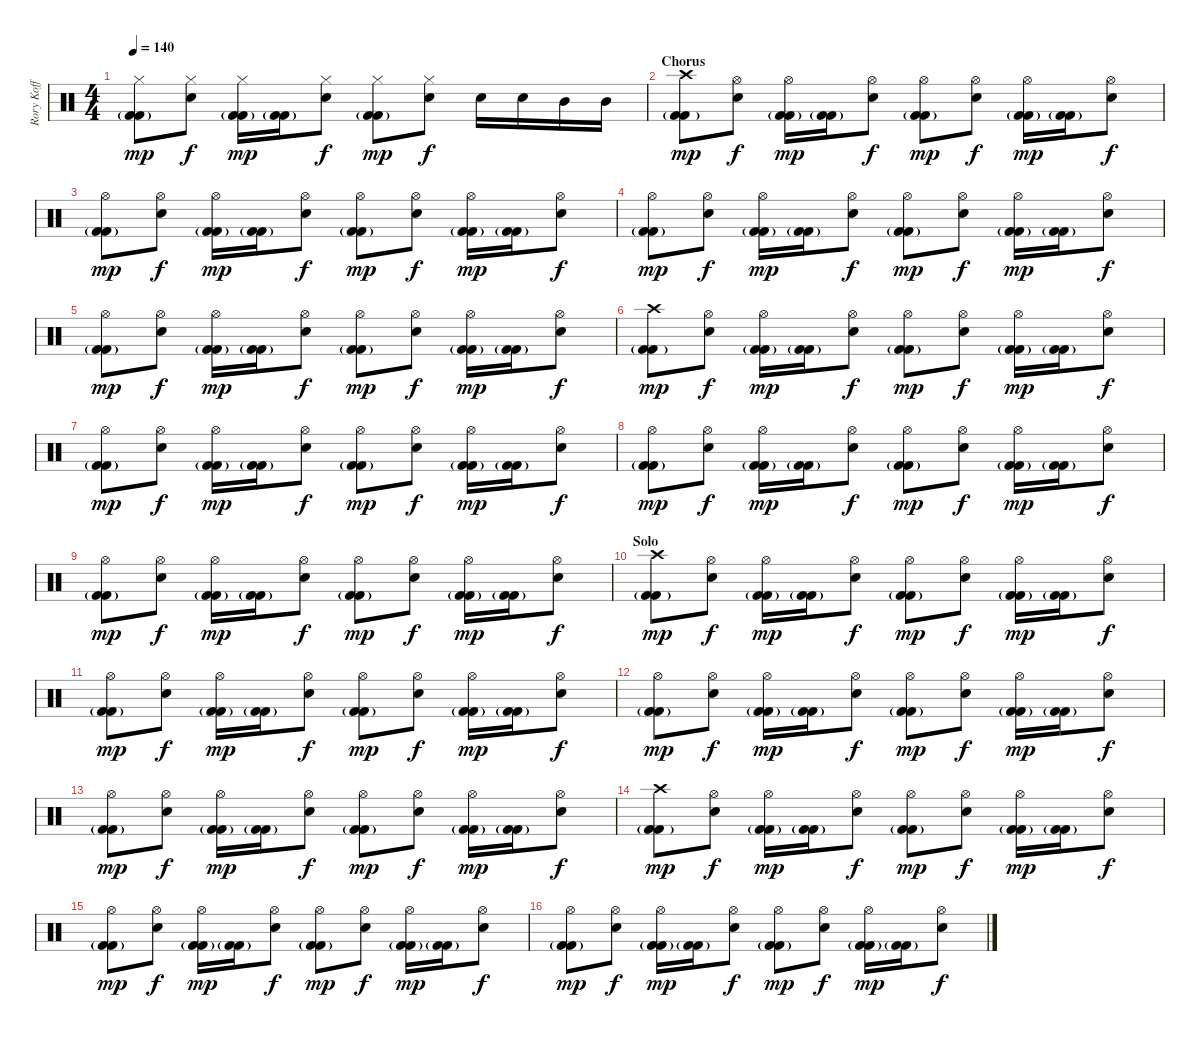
\track ("Rory Koff" "Rory Koff") {instrument percussion}
\staff {score}
\articulation defaults
\ts (4 4)
\tempo 140
\clef neutral
\ks c
("Hi-Hat (closed)" "Kick (hit) 2"{g} "Kick (hit) 2").8{dy mp} ("Hi-Hat (closed)" "Snare (hit) 2").8{dy f} ("Hi-Hat (closed)" "Kick (hit) 2"{g} "Kick (hit) 2").16{dy mp} ("Kick (hit) 2"{g} "Kick (hit) 2").16 ("Hi-Hat (closed)" "Snare (hit) 2").8{dy f} ("Hi-Hat (closed)" "Kick (hit) 2"{g} "Kick (hit) 2").8{dy mp} ("Hi-Hat (closed)" "Snare (hit) 2").8{dy f} "Snare (hit) 2".16 "Snare (hit) 2".16 "Mid Tom (hit)".16 "Mid Tom (hit)".16 |
\section ("" "Chorus")
("Crash high (hit)" "Kick (hit) 2"{g} "Kick (hit) 2").8{dy mp} ("Hi-Hat (open)" "Snare (hit) 2").8{dy f} ("Hi-Hat (open)" "Kick (hit) 2"{g} "Kick (hit) 2").16{dy mp} ("Kick (hit) 2"{g} "Kick (hit) 2").16 ("Hi-Hat (open)" "Snare (hit) 2").8{dy f} ("Hi-Hat (open)" "Kick (hit) 2"{g} "Kick (hit) 2").8{dy mp} ("Hi-Hat (open)" "Snare (hit) 2").8{dy f} ("Hi-Hat (open)" "Kick (hit) 2"{g} "Kick (hit) 2").16{dy mp} ("Kick (hit) 2"{g} "Kick (hit) 2").16 ("Hi-Hat (open)" "Snare (hit) 2").8{dy f} |
("Hi-Hat (open)" "Kick (hit) 2"{g} "Kick (hit) 2").8{dy mp} ("Hi-Hat (open)" "Snare (hit) 2").8{dy f} ("Hi-Hat (open)" "Kick (hit) 2"{g} "Kick (hit) 2").16{dy mp} ("Kick (hit) 2"{g} "Kick (hit) 2").16 ("Hi-Hat (open)" "Snare (hit) 2").8{dy f} ("Hi-Hat (open)" "Kick (hit) 2"{g} "Kick (hit) 2").8{dy mp} ("Hi-Hat (open)" "Snare (hit) 2").8{dy f} ("Hi-Hat (open)" "Kick (hit) 2"{g} "Kick (hit) 2").16{dy mp} ("Kick (hit) 2"{g} "Kick (hit) 2").16 ("Hi-Hat (open)" "Snare (hit) 2").8{dy f} |
("Hi-Hat (open)" "Kick (hit) 2"{g} "Kick (hit) 2").8{dy mp} ("Hi-Hat (open)" "Snare (hit) 2").8{dy f} ("Hi-Hat (open)" "Kick (hit) 2"{g} "Kick (hit) 2").16{dy mp} ("Kick (hit) 2"{g} "Kick (hit) 2").16 ("Hi-Hat (open)" "Snare (hit) 2").8{dy f} ("Hi-Hat (open)" "Kick (hit) 2"{g} "Kick (hit) 2").8{dy mp} ("Hi-Hat (open)" "Snare (hit) 2").8{dy f} ("Hi-Hat (open)" "Kick (hit) 2"{g} "Kick (hit) 2").16{dy mp} ("Kick (hit) 2"{g} "Kick (hit) 2").16 ("Hi-Hat (open)" "Snare (hit) 2").8{dy f} |
("Hi-Hat (open)" "Kick (hit) 2"{g} "Kick (hit) 2").8{dy mp} ("Hi-Hat (open)" "Snare (hit) 2").8{dy f} ("Hi-Hat (open)" "Kick (hit) 2"{g} "Kick (hit) 2").16{dy mp} ("Kick (hit) 2"{g} "Kick (hit) 2").16 ("Hi-Hat (open)" "Snare (hit) 2").8{dy f} ("Hi-Hat (open)" "Kick (hit) 2"{g} "Kick (hit) 2").8{dy mp} ("Hi-Hat (open)" "Snare (hit) 2").8{dy f} ("Hi-Hat (open)" "Kick (hit) 2"{g} "Kick (hit) 2").16{dy mp} ("Kick (hit) 2"{g} "Kick (hit) 2").16 ("Hi-Hat (open)" "Snare (hit) 2").8{dy f} |
("Crash high (hit)" "Kick (hit) 2"{g} "Kick (hit) 2").8{dy mp} ("Hi-Hat (open)" "Snare (hit) 2").8{dy f} ("Hi-Hat (open)" "Kick (hit) 2"{g} "Kick (hit) 2").16{dy mp} ("Kick (hit) 2"{g} "Kick (hit) 2").16 ("Hi-Hat (open)" "Snare (hit) 2").8{dy f} ("Hi-Hat (open)" "Kick (hit) 2"{g} "Kick (hit) 2").8{dy mp} ("Hi-Hat (open)" "Snare (hit) 2").8{dy f} ("Hi-Hat (open)" "Kick (hit) 2"{g} "Kick (hit) 2").16{dy mp} ("Kick (hit) 2"{g} "Kick (hit) 2").16 ("Hi-Hat (open)" "Snare (hit) 2").8{dy f} |
("Hi-Hat (open)" "Kick (hit) 2"{g} "Kick (hit) 2").8{dy mp} ("Hi-Hat (open)" "Snare (hit) 2").8{dy f} ("Hi-Hat (open)" "Kick (hit) 2"{g} "Kick (hit) 2").16{dy mp} ("Kick (hit) 2"{g} "Kick (hit) 2").16 ("Hi-Hat (open)" "Snare (hit) 2").8{dy f} ("Hi-Hat (open)" "Kick (hit) 2"{g} "Kick (hit) 2").8{dy mp} ("Hi-Hat (open)" "Snare (hit) 2").8{dy f} ("Hi-Hat (open)" "Kick (hit) 2"{g} "Kick (hit) 2").16{dy mp} ("Kick (hit) 2"{g} "Kick (hit) 2").16 ("Hi-Hat (open)" "Snare (hit) 2").8{dy f} |
("Hi-Hat (open)" "Kick (hit) 2"{g} "Kick (hit) 2").8{dy mp} ("Hi-Hat (open)" "Snare (hit) 2").8{dy f} ("Hi-Hat (open)" "Kick (hit) 2"{g} "Kick (hit) 2").16{dy mp} ("Kick (hit) 2"{g} "Kick (hit) 2").16 ("Hi-Hat (open)" "Snare (hit) 2").8{dy f} ("Hi-Hat (open)" "Kick (hit) 2"{g} "Kick (hit) 2").8{dy mp} ("Hi-Hat (open)" "Snare (hit) 2").8{dy f} ("Hi-Hat (open)" "Kick (hit) 2"{g} "Kick (hit) 2").16{dy mp} ("Kick (hit) 2"{g} "Kick (hit) 2").16 ("Hi-Hat (open)" "Snare (hit) 2").8{dy f} |
("Hi-Hat (open)" "Kick (hit) 2"{g} "Kick (hit) 2").8{dy mp} ("Hi-Hat (open)" "Snare (hit) 2").8{dy f} ("Hi-Hat (open)" "Kick (hit) 2"{g} "Kick (hit) 2").16{dy mp} ("Kick (hit) 2"{g} "Kick (hit) 2").16 ("Hi-Hat (open)" "Snare (hit) 2").8{dy f} ("Hi-Hat (open)" "Kick (hit) 2"{g} "Kick (hit) 2").8{dy mp} ("Hi-Hat (open)" "Snare (hit) 2").8{dy f} ("Hi-Hat (open)" "Kick (hit) 2"{g} "Kick (hit) 2").16{dy mp} ("Kick (hit) 2"{g} "Kick (hit) 2").16 ("Hi-Hat (open)" "Snare (hit) 2").8{dy f} |
\section ("" "Solo")
("Crash high (hit)" "Kick (hit) 2"{g} "Kick (hit) 2").8{dy mp} ("Hi-Hat (open)" "Snare (hit) 2").8{dy f} ("Hi-Hat (open)" "Kick (hit) 2"{g} "Kick (hit) 2").16{dy mp} ("Kick (hit) 2"{g} "Kick (hit) 2").16 ("Hi-Hat (open)" "Snare (hit) 2").8{dy f} ("Hi-Hat (open)" "Kick (hit) 2"{g} "Kick (hit) 2").8{dy mp} ("Hi-Hat (open)" "Snare (hit) 2").8{dy f} ("Hi-Hat (open)" "Kick (hit) 2"{g} "Kick (hit) 2").16{dy mp} ("Kick (hit) 2"{g} "Kick (hit) 2").16 ("Hi-Hat (open)" "Snare (hit) 2").8{dy f} |
("Hi-Hat (open)" "Kick (hit) 2"{g} "Kick (hit) 2").8{dy mp} ("Hi-Hat (open)" "Snare (hit) 2").8{dy f} ("Hi-Hat (open)" "Kick (hit) 2"{g} "Kick (hit) 2").16{dy mp} ("Kick (hit) 2"{g} "Kick (hit) 2").16 ("Hi-Hat (open)" "Snare (hit) 2").8{dy f} ("Hi-Hat (open)" "Kick (hit) 2"{g} "Kick (hit) 2").8{dy mp} ("Hi-Hat (open)" "Snare (hit) 2").8{dy f} ("Hi-Hat (open)" "Kick (hit) 2"{g} "Kick (hit) 2").16{dy mp} ("Kick (hit) 2"{g} "Kick (hit) 2").16 ("Hi-Hat (open)" "Snare (hit) 2").8{dy f} |
("Hi-Hat (open)" "Kick (hit) 2"{g} "Kick (hit) 2").8{dy mp} ("Hi-Hat (open)" "Snare (hit) 2").8{dy f} ("Hi-Hat (open)" "Kick (hit) 2"{g} "Kick (hit) 2").16{dy mp} ("Kick (hit) 2"{g} "Kick (hit) 2").16 ("Hi-Hat (open)" "Snare (hit) 2").8{dy f} ("Hi-Hat (open)" "Kick (hit) 2"{g} "Kick (hit) 2").8{dy mp} ("Hi-Hat (open)" "Snare (hit) 2").8{dy f} ("Hi-Hat (open)" "Kick (hit) 2"{g} "Kick (hit) 2").16{dy mp} ("Kick (hit) 2"{g} "Kick (hit) 2").16 ("Hi-Hat (open)" "Snare (hit) 2").8{dy f} |
("Hi-Hat (open)" "Kick (hit) 2"{g} "Kick (hit) 2").8{dy mp} ("Hi-Hat (open)" "Snare (hit) 2").8{dy f} ("Hi-Hat (open)" "Kick (hit) 2"{g} "Kick (hit) 2").16{dy mp} ("Kick (hit) 2"{g} "Kick (hit) 2").16 ("Hi-Hat (open)" "Snare (hit) 2").8{dy f} ("Hi-Hat (open)" "Kick (hit) 2"{g} "Kick (hit) 2").8{dy mp} ("Hi-Hat (open)" "Snare (hit) 2").8{dy f} ("Hi-Hat (open)" "Kick (hit) 2"{g} "Kick (hit) 2").16{dy mp} ("Kick (hit) 2"{g} "Kick (hit) 2").16 ("Hi-Hat (open)" "Snare (hit) 2").8{dy f} |
("Crash high (hit)" "Kick (hit) 2"{g} "Kick (hit) 2").8{dy mp} ("Hi-Hat (open)" "Snare (hit) 2").8{dy f} ("Hi-Hat (open)" "Kick (hit) 2"{g} "Kick (hit) 2").16{dy mp} ("Kick (hit) 2"{g} "Kick (hit) 2").16 ("Hi-Hat (open)" "Snare (hit) 2").8{dy f} ("Hi-Hat (open)" "Kick (hit) 2"{g} "Kick (hit) 2").8{dy mp} ("Hi-Hat (open)" "Snare (hit) 2").8{dy f} ("Hi-Hat (open)" "Kick (hit) 2"{g} "Kick (hit) 2").16{dy mp} ("Kick (hit) 2"{g} "Kick (hit) 2").16 ("Hi-Hat (open)" "Snare (hit) 2").8{dy f} |
("Hi-Hat (open)" "Kick (hit) 2"{g} "Kick (hit) 2").8{dy mp} ("Hi-Hat (open)" "Snare (hit) 2").8{dy f} ("Hi-Hat (open)" "Kick (hit) 2"{g} "Kick (hit) 2").16{dy mp} ("Kick (hit) 2"{g} "Kick (hit) 2").16 ("Hi-Hat (open)" "Snare (hit) 2").8{dy f} ("Hi-Hat (open)" "Kick (hit) 2"{g} "Kick (hit) 2").8{dy mp} ("Hi-Hat (open)" "Snare (hit) 2").8{dy f} ("Hi-Hat (open)" "Kick (hit) 2"{g} "Kick (hit) 2").16{dy mp} ("Kick (hit) 2"{g} "Kick (hit) 2").16 ("Hi-Hat (open)" "Snare (hit) 2").8{dy f} |
("Hi-Hat (open)" "Kick (hit) 2"{g} "Kick (hit) 2").8{dy mp} ("Hi-Hat (open)" "Snare (hit) 2").8{dy f} ("Hi-Hat (open)" "Kick (hit) 2"{g} "Kick (hit) 2").16{dy mp} ("Kick (hit) 2"{g} "Kick (hit) 2").16 ("Hi-Hat (open)" "Snare (hit) 2").8{dy f} ("Hi-Hat (open)" "Kick (hit) 2"{g} "Kick (hit) 2").8{dy mp} ("Hi-Hat (open)" "Snare (hit) 2").8{dy f} ("Hi-Hat (open)" "Kick (hit) 2"{g} "Kick (hit) 2").16{dy mp} ("Kick (hit) 2"{g} "Kick (hit) 2").16 ("Hi-Hat (open)" "Snare (hit) 2").8{dy f}
